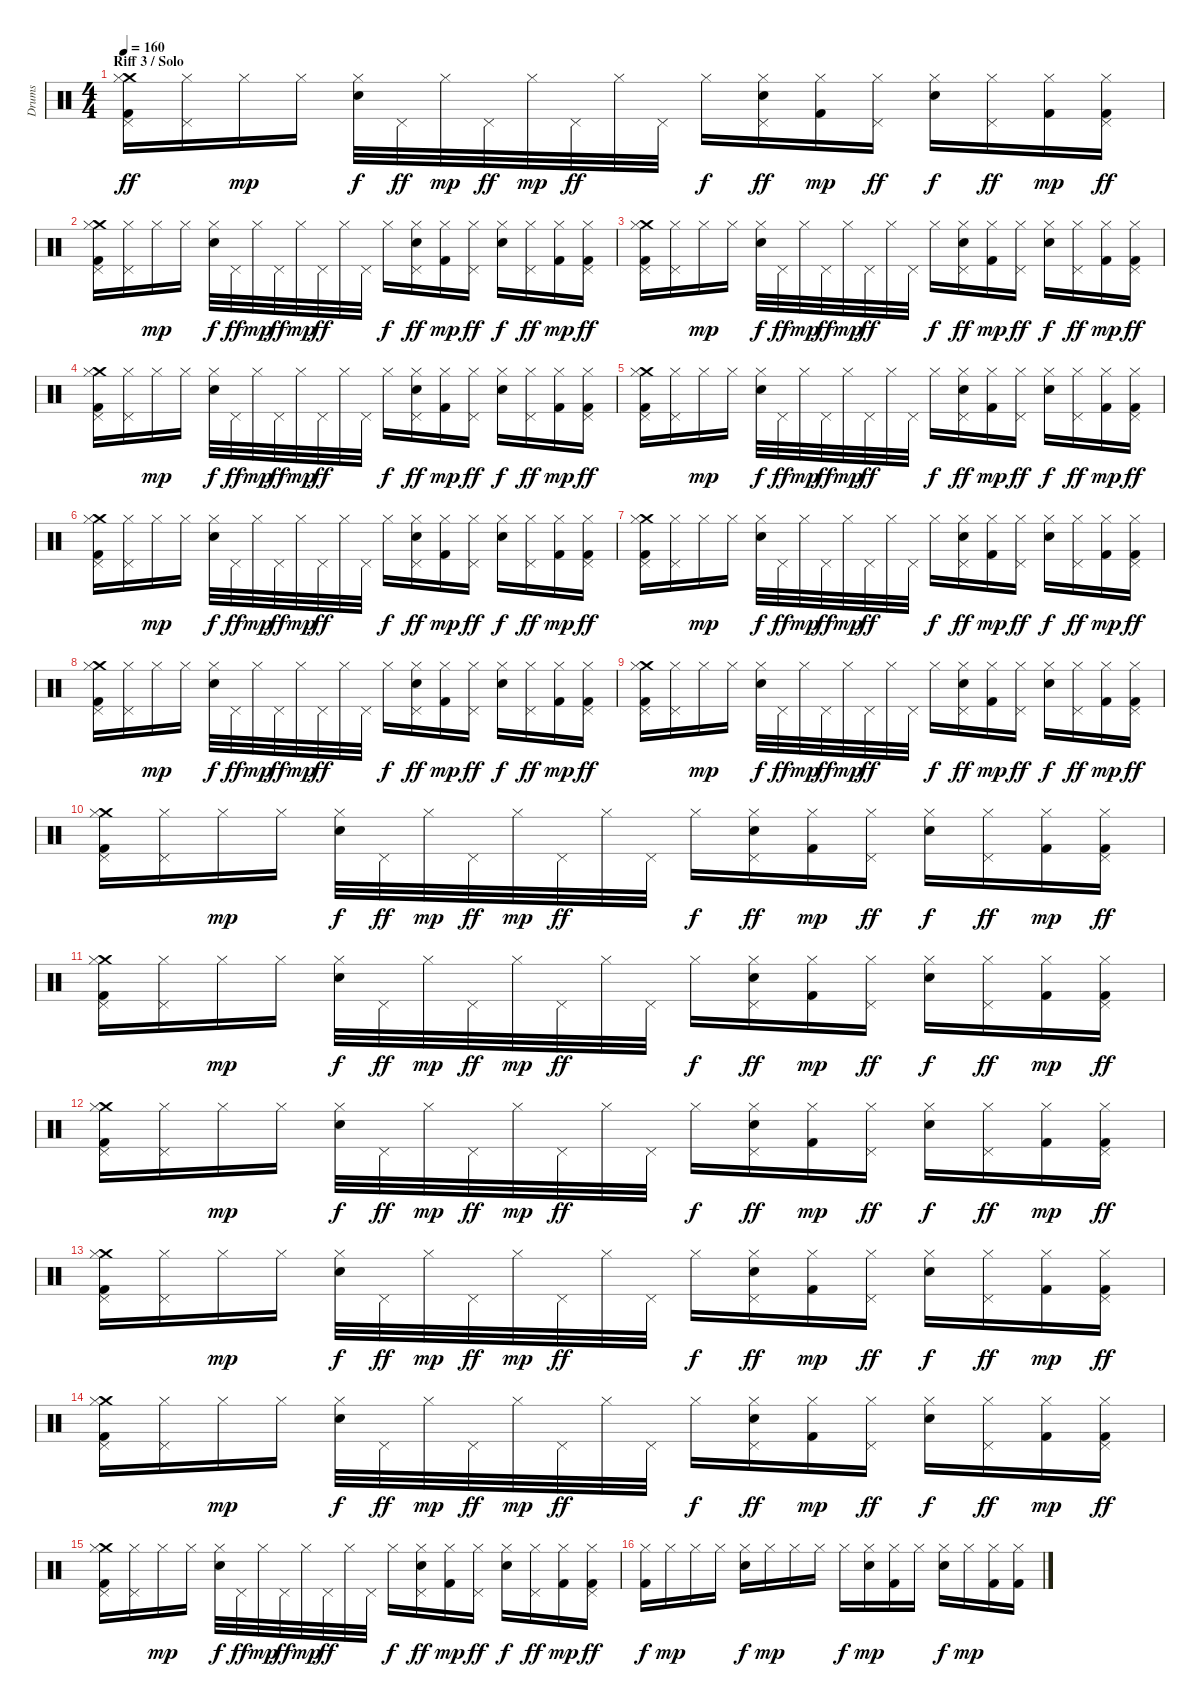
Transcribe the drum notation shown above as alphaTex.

\track ("Drums" "Drums") {instrument percussion}
\staff {score}
\articulation defaults
\ts (4 4)
\section ("" "Riff 3 / Solo")
\tempo 160
\clef neutral
\ks c
("Kick (hit) 2" "Crash medium (hit)" "Hi-Hat (closed)" "Pedal Hi-Hat (hit)").16{dy ff} ("Hi-Hat (closed)" "Pedal Hi-Hat (hit)").16 "Hi-Hat (closed)".16{dy mp} "Hi-Hat (closed)".16 ("Snare (hit) 2" "Hi-Hat (closed)").32{dy f} "Pedal Hi-Hat (hit)".32{dy ff} "Hi-Hat (closed)".32{dy mp} "Pedal Hi-Hat (hit)".32{dy ff} "Hi-Hat (closed)".32{dy mp} "Pedal Hi-Hat (hit)".32{dy ff} "Hi-Hat (closed)".32 "Pedal Hi-Hat (hit)".32 "Hi-Hat (closed)".16{dy f} ("Snare (hit) 2" "Hi-Hat (closed)" "Pedal Hi-Hat (hit)").16{dy ff} ("Kick (hit) 2" "Hi-Hat (closed)").16{dy mp} ("Hi-Hat (closed)" "Pedal Hi-Hat (hit)").16{dy ff} ("Snare (hit) 2" "Hi-Hat (closed)").16{dy f} ("Hi-Hat (closed)" "Pedal Hi-Hat (hit)").16{dy ff} ("Kick (hit) 2" "Hi-Hat (closed)").16{dy mp} ("Kick (hit) 2" "Hi-Hat (closed)" "Pedal Hi-Hat (hit)").16{dy ff} |
("Kick (hit) 2" "Crash medium (hit)" "Hi-Hat (closed)" "Pedal Hi-Hat (hit)").16 ("Hi-Hat (closed)" "Pedal Hi-Hat (hit)").16 "Hi-Hat (closed)".16{dy mp} "Hi-Hat (closed)".16 ("Snare (hit) 2" "Hi-Hat (closed)").32{dy f} "Pedal Hi-Hat (hit)".32{dy ff} "Hi-Hat (closed)".32{dy mp} "Pedal Hi-Hat (hit)".32{dy ff} "Hi-Hat (closed)".32{dy mp} "Pedal Hi-Hat (hit)".32{dy ff} "Hi-Hat (closed)".32 "Pedal Hi-Hat (hit)".32 "Hi-Hat (closed)".16{dy f} ("Snare (hit) 2" "Hi-Hat (closed)" "Pedal Hi-Hat (hit)").16{dy ff} ("Kick (hit) 2" "Hi-Hat (closed)").16{dy mp} ("Hi-Hat (closed)" "Pedal Hi-Hat (hit)").16{dy ff} ("Snare (hit) 2" "Hi-Hat (closed)").16{dy f} ("Hi-Hat (closed)" "Pedal Hi-Hat (hit)").16{dy ff} ("Kick (hit) 2" "Hi-Hat (closed)").16{dy mp} ("Kick (hit) 2" "Hi-Hat (closed)" "Pedal Hi-Hat (hit)").16{dy ff} |
("Kick (hit) 2" "Crash medium (hit)" "Hi-Hat (closed)" "Pedal Hi-Hat (hit)").16 ("Hi-Hat (closed)" "Pedal Hi-Hat (hit)").16 "Hi-Hat (closed)".16{dy mp} "Hi-Hat (closed)".16 ("Snare (hit) 2" "Hi-Hat (closed)").32{dy f} "Pedal Hi-Hat (hit)".32{dy ff} "Hi-Hat (closed)".32{dy mp} "Pedal Hi-Hat (hit)".32{dy ff} "Hi-Hat (closed)".32{dy mp} "Pedal Hi-Hat (hit)".32{dy ff} "Hi-Hat (closed)".32 "Pedal Hi-Hat (hit)".32 "Hi-Hat (closed)".16{dy f} ("Snare (hit) 2" "Hi-Hat (closed)" "Pedal Hi-Hat (hit)").16{dy ff} ("Kick (hit) 2" "Hi-Hat (closed)").16{dy mp} ("Hi-Hat (closed)" "Pedal Hi-Hat (hit)").16{dy ff} ("Snare (hit) 2" "Hi-Hat (closed)").16{dy f} ("Hi-Hat (closed)" "Pedal Hi-Hat (hit)").16{dy ff} ("Kick (hit) 2" "Hi-Hat (closed)").16{dy mp} ("Kick (hit) 2" "Hi-Hat (closed)" "Pedal Hi-Hat (hit)").16{dy ff} |
("Kick (hit) 2" "Crash medium (hit)" "Hi-Hat (closed)" "Pedal Hi-Hat (hit)").16 ("Hi-Hat (closed)" "Pedal Hi-Hat (hit)").16 "Hi-Hat (closed)".16{dy mp} "Hi-Hat (closed)".16 ("Snare (hit) 2" "Hi-Hat (closed)").32{dy f} "Pedal Hi-Hat (hit)".32{dy ff} "Hi-Hat (closed)".32{dy mp} "Pedal Hi-Hat (hit)".32{dy ff} "Hi-Hat (closed)".32{dy mp} "Pedal Hi-Hat (hit)".32{dy ff} "Hi-Hat (closed)".32 "Pedal Hi-Hat (hit)".32 "Hi-Hat (closed)".16{dy f} ("Snare (hit) 2" "Hi-Hat (closed)" "Pedal Hi-Hat (hit)").16{dy ff} ("Kick (hit) 2" "Hi-Hat (closed)").16{dy mp} ("Hi-Hat (closed)" "Pedal Hi-Hat (hit)").16{dy ff} ("Snare (hit) 2" "Hi-Hat (closed)").16{dy f} ("Hi-Hat (closed)" "Pedal Hi-Hat (hit)").16{dy ff} ("Kick (hit) 2" "Hi-Hat (closed)").16{dy mp} ("Kick (hit) 2" "Hi-Hat (closed)" "Pedal Hi-Hat (hit)").16{dy ff} |
("Kick (hit) 2" "Crash medium (hit)" "Hi-Hat (closed)" "Pedal Hi-Hat (hit)").16 ("Hi-Hat (closed)" "Pedal Hi-Hat (hit)").16 "Hi-Hat (closed)".16{dy mp} "Hi-Hat (closed)".16 ("Snare (hit) 2" "Hi-Hat (closed)").32{dy f} "Pedal Hi-Hat (hit)".32{dy ff} "Hi-Hat (closed)".32{dy mp} "Pedal Hi-Hat (hit)".32{dy ff} "Hi-Hat (closed)".32{dy mp} "Pedal Hi-Hat (hit)".32{dy ff} "Hi-Hat (closed)".32 "Pedal Hi-Hat (hit)".32 "Hi-Hat (closed)".16{dy f} ("Snare (hit) 2" "Hi-Hat (closed)" "Pedal Hi-Hat (hit)").16{dy ff} ("Kick (hit) 2" "Hi-Hat (closed)").16{dy mp} ("Hi-Hat (closed)" "Pedal Hi-Hat (hit)").16{dy ff} ("Snare (hit) 2" "Hi-Hat (closed)").16{dy f} ("Hi-Hat (closed)" "Pedal Hi-Hat (hit)").16{dy ff} ("Kick (hit) 2" "Hi-Hat (closed)").16{dy mp} ("Kick (hit) 2" "Hi-Hat (closed)" "Pedal Hi-Hat (hit)").16{dy ff} |
("Kick (hit) 2" "Crash medium (hit)" "Hi-Hat (closed)" "Pedal Hi-Hat (hit)").16 ("Hi-Hat (closed)" "Pedal Hi-Hat (hit)").16 "Hi-Hat (closed)".16{dy mp} "Hi-Hat (closed)".16 ("Snare (hit) 2" "Hi-Hat (closed)").32{dy f} "Pedal Hi-Hat (hit)".32{dy ff} "Hi-Hat (closed)".32{dy mp} "Pedal Hi-Hat (hit)".32{dy ff} "Hi-Hat (closed)".32{dy mp} "Pedal Hi-Hat (hit)".32{dy ff} "Hi-Hat (closed)".32 "Pedal Hi-Hat (hit)".32 "Hi-Hat (closed)".16{dy f} ("Snare (hit) 2" "Hi-Hat (closed)" "Pedal Hi-Hat (hit)").16{dy ff} ("Kick (hit) 2" "Hi-Hat (closed)").16{dy mp} ("Hi-Hat (closed)" "Pedal Hi-Hat (hit)").16{dy ff} ("Snare (hit) 2" "Hi-Hat (closed)").16{dy f} ("Hi-Hat (closed)" "Pedal Hi-Hat (hit)").16{dy ff} ("Kick (hit) 2" "Hi-Hat (closed)").16{dy mp} ("Kick (hit) 2" "Hi-Hat (closed)" "Pedal Hi-Hat (hit)").16{dy ff} |
("Kick (hit) 2" "Crash medium (hit)" "Hi-Hat (closed)" "Pedal Hi-Hat (hit)").16 ("Hi-Hat (closed)" "Pedal Hi-Hat (hit)").16 "Hi-Hat (closed)".16{dy mp} "Hi-Hat (closed)".16 ("Snare (hit) 2" "Hi-Hat (closed)").32{dy f} "Pedal Hi-Hat (hit)".32{dy ff} "Hi-Hat (closed)".32{dy mp} "Pedal Hi-Hat (hit)".32{dy ff} "Hi-Hat (closed)".32{dy mp} "Pedal Hi-Hat (hit)".32{dy ff} "Hi-Hat (closed)".32 "Pedal Hi-Hat (hit)".32 "Hi-Hat (closed)".16{dy f} ("Snare (hit) 2" "Hi-Hat (closed)" "Pedal Hi-Hat (hit)").16{dy ff} ("Kick (hit) 2" "Hi-Hat (closed)").16{dy mp} ("Hi-Hat (closed)" "Pedal Hi-Hat (hit)").16{dy ff} ("Snare (hit) 2" "Hi-Hat (closed)").16{dy f} ("Hi-Hat (closed)" "Pedal Hi-Hat (hit)").16{dy ff} ("Kick (hit) 2" "Hi-Hat (closed)").16{dy mp} ("Kick (hit) 2" "Hi-Hat (closed)" "Pedal Hi-Hat (hit)").16{dy ff} |
("Kick (hit) 2" "Crash medium (hit)" "Hi-Hat (closed)" "Pedal Hi-Hat (hit)").16 ("Hi-Hat (closed)" "Pedal Hi-Hat (hit)").16 "Hi-Hat (closed)".16{dy mp} "Hi-Hat (closed)".16 ("Snare (hit) 2" "Hi-Hat (closed)").32{dy f} "Pedal Hi-Hat (hit)".32{dy ff} "Hi-Hat (closed)".32{dy mp} "Pedal Hi-Hat (hit)".32{dy ff} "Hi-Hat (closed)".32{dy mp} "Pedal Hi-Hat (hit)".32{dy ff} "Hi-Hat (closed)".32 "Pedal Hi-Hat (hit)".32 "Hi-Hat (closed)".16{dy f} ("Snare (hit) 2" "Hi-Hat (closed)" "Pedal Hi-Hat (hit)").16{dy ff} ("Kick (hit) 2" "Hi-Hat (closed)").16{dy mp} ("Hi-Hat (closed)" "Pedal Hi-Hat (hit)").16{dy ff} ("Snare (hit) 2" "Hi-Hat (closed)").16{dy f} ("Hi-Hat (closed)" "Pedal Hi-Hat (hit)").16{dy ff} ("Kick (hit) 2" "Hi-Hat (closed)").16{dy mp} ("Kick (hit) 2" "Hi-Hat (closed)" "Pedal Hi-Hat (hit)").16{dy ff} |
("Kick (hit) 2" "Crash medium (hit)" "Hi-Hat (closed)" "Pedal Hi-Hat (hit)").16 ("Hi-Hat (closed)" "Pedal Hi-Hat (hit)").16 "Hi-Hat (closed)".16{dy mp} "Hi-Hat (closed)".16 ("Snare (hit) 2" "Hi-Hat (closed)").32{dy f} "Pedal Hi-Hat (hit)".32{dy ff} "Hi-Hat (closed)".32{dy mp} "Pedal Hi-Hat (hit)".32{dy ff} "Hi-Hat (closed)".32{dy mp} "Pedal Hi-Hat (hit)".32{dy ff} "Hi-Hat (closed)".32 "Pedal Hi-Hat (hit)".32 "Hi-Hat (closed)".16{dy f} ("Snare (hit) 2" "Hi-Hat (closed)" "Pedal Hi-Hat (hit)").16{dy ff} ("Kick (hit) 2" "Hi-Hat (closed)").16{dy mp} ("Hi-Hat (closed)" "Pedal Hi-Hat (hit)").16{dy ff} ("Snare (hit) 2" "Hi-Hat (closed)").16{dy f} ("Hi-Hat (closed)" "Pedal Hi-Hat (hit)").16{dy ff} ("Kick (hit) 2" "Hi-Hat (closed)").16{dy mp} ("Kick (hit) 2" "Hi-Hat (closed)" "Pedal Hi-Hat (hit)").16{dy ff} |
("Kick (hit) 2" "Crash medium (hit)" "Hi-Hat (closed)" "Pedal Hi-Hat (hit)").16 ("Hi-Hat (closed)" "Pedal Hi-Hat (hit)").16 "Hi-Hat (closed)".16{dy mp} "Hi-Hat (closed)".16 ("Snare (hit) 2" "Hi-Hat (closed)").32{dy f} "Pedal Hi-Hat (hit)".32{dy ff} "Hi-Hat (closed)".32{dy mp} "Pedal Hi-Hat (hit)".32{dy ff} "Hi-Hat (closed)".32{dy mp} "Pedal Hi-Hat (hit)".32{dy ff} "Hi-Hat (closed)".32 "Pedal Hi-Hat (hit)".32 "Hi-Hat (closed)".16{dy f} ("Snare (hit) 2" "Hi-Hat (closed)" "Pedal Hi-Hat (hit)").16{dy ff} ("Kick (hit) 2" "Hi-Hat (closed)").16{dy mp} ("Hi-Hat (closed)" "Pedal Hi-Hat (hit)").16{dy ff} ("Snare (hit) 2" "Hi-Hat (closed)").16{dy f} ("Hi-Hat (closed)" "Pedal Hi-Hat (hit)").16{dy ff} ("Kick (hit) 2" "Hi-Hat (closed)").16{dy mp} ("Kick (hit) 2" "Hi-Hat (closed)" "Pedal Hi-Hat (hit)").16{dy ff} |
("Kick (hit) 2" "Crash medium (hit)" "Hi-Hat (closed)" "Pedal Hi-Hat (hit)").16 ("Hi-Hat (closed)" "Pedal Hi-Hat (hit)").16 "Hi-Hat (closed)".16{dy mp} "Hi-Hat (closed)".16 ("Snare (hit) 2" "Hi-Hat (closed)").32{dy f} "Pedal Hi-Hat (hit)".32{dy ff} "Hi-Hat (closed)".32{dy mp} "Pedal Hi-Hat (hit)".32{dy ff} "Hi-Hat (closed)".32{dy mp} "Pedal Hi-Hat (hit)".32{dy ff} "Hi-Hat (closed)".32 "Pedal Hi-Hat (hit)".32 "Hi-Hat (closed)".16{dy f} ("Snare (hit) 2" "Hi-Hat (closed)" "Pedal Hi-Hat (hit)").16{dy ff} ("Kick (hit) 2" "Hi-Hat (closed)").16{dy mp} ("Hi-Hat (closed)" "Pedal Hi-Hat (hit)").16{dy ff} ("Snare (hit) 2" "Hi-Hat (closed)").16{dy f} ("Hi-Hat (closed)" "Pedal Hi-Hat (hit)").16{dy ff} ("Kick (hit) 2" "Hi-Hat (closed)").16{dy mp} ("Kick (hit) 2" "Hi-Hat (closed)" "Pedal Hi-Hat (hit)").16{dy ff} |
("Kick (hit) 2" "Crash medium (hit)" "Hi-Hat (closed)" "Pedal Hi-Hat (hit)").16 ("Hi-Hat (closed)" "Pedal Hi-Hat (hit)").16 "Hi-Hat (closed)".16{dy mp} "Hi-Hat (closed)".16 ("Snare (hit) 2" "Hi-Hat (closed)").32{dy f} "Pedal Hi-Hat (hit)".32{dy ff} "Hi-Hat (closed)".32{dy mp} "Pedal Hi-Hat (hit)".32{dy ff} "Hi-Hat (closed)".32{dy mp} "Pedal Hi-Hat (hit)".32{dy ff} "Hi-Hat (closed)".32 "Pedal Hi-Hat (hit)".32 "Hi-Hat (closed)".16{dy f} ("Snare (hit) 2" "Hi-Hat (closed)" "Pedal Hi-Hat (hit)").16{dy ff} ("Kick (hit) 2" "Hi-Hat (closed)").16{dy mp} ("Hi-Hat (closed)" "Pedal Hi-Hat (hit)").16{dy ff} ("Snare (hit) 2" "Hi-Hat (closed)").16{dy f} ("Hi-Hat (closed)" "Pedal Hi-Hat (hit)").16{dy ff} ("Kick (hit) 2" "Hi-Hat (closed)").16{dy mp} ("Kick (hit) 2" "Hi-Hat (closed)" "Pedal Hi-Hat (hit)").16{dy ff} |
("Kick (hit) 2" "Crash medium (hit)" "Hi-Hat (closed)" "Pedal Hi-Hat (hit)").16 ("Hi-Hat (closed)" "Pedal Hi-Hat (hit)").16 "Hi-Hat (closed)".16{dy mp} "Hi-Hat (closed)".16 ("Snare (hit) 2" "Hi-Hat (closed)").32{dy f} "Pedal Hi-Hat (hit)".32{dy ff} "Hi-Hat (closed)".32{dy mp} "Pedal Hi-Hat (hit)".32{dy ff} "Hi-Hat (closed)".32{dy mp} "Pedal Hi-Hat (hit)".32{dy ff} "Hi-Hat (closed)".32 "Pedal Hi-Hat (hit)".32 "Hi-Hat (closed)".16{dy f} ("Snare (hit) 2" "Hi-Hat (closed)" "Pedal Hi-Hat (hit)").16{dy ff} ("Kick (hit) 2" "Hi-Hat (closed)").16{dy mp} ("Hi-Hat (closed)" "Pedal Hi-Hat (hit)").16{dy ff} ("Snare (hit) 2" "Hi-Hat (closed)").16{dy f} ("Hi-Hat (closed)" "Pedal Hi-Hat (hit)").16{dy ff} ("Kick (hit) 2" "Hi-Hat (closed)").16{dy mp} ("Kick (hit) 2" "Hi-Hat (closed)" "Pedal Hi-Hat (hit)").16{dy ff} |
("Kick (hit) 2" "Crash medium (hit)" "Hi-Hat (closed)" "Pedal Hi-Hat (hit)").16 ("Hi-Hat (closed)" "Pedal Hi-Hat (hit)").16 "Hi-Hat (closed)".16{dy mp} "Hi-Hat (closed)".16 ("Snare (hit) 2" "Hi-Hat (closed)").32{dy f} "Pedal Hi-Hat (hit)".32{dy ff} "Hi-Hat (closed)".32{dy mp} "Pedal Hi-Hat (hit)".32{dy ff} "Hi-Hat (closed)".32{dy mp} "Pedal Hi-Hat (hit)".32{dy ff} "Hi-Hat (closed)".32 "Pedal Hi-Hat (hit)".32 "Hi-Hat (closed)".16{dy f} ("Snare (hit) 2" "Hi-Hat (closed)" "Pedal Hi-Hat (hit)").16{dy ff} ("Kick (hit) 2" "Hi-Hat (closed)").16{dy mp} ("Hi-Hat (closed)" "Pedal Hi-Hat (hit)").16{dy ff} ("Snare (hit) 2" "Hi-Hat (closed)").16{dy f} ("Hi-Hat (closed)" "Pedal Hi-Hat (hit)").16{dy ff} ("Kick (hit) 2" "Hi-Hat (closed)").16{dy mp} ("Kick (hit) 2" "Hi-Hat (closed)" "Pedal Hi-Hat (hit)").16{dy ff} |
("Kick (hit) 2" "Crash medium (hit)" "Hi-Hat (closed)" "Pedal Hi-Hat (hit)").16 ("Hi-Hat (closed)" "Pedal Hi-Hat (hit)").16 "Hi-Hat (closed)".16{dy mp} "Hi-Hat (closed)".16 ("Snare (hit) 2" "Hi-Hat (closed)").32{dy f} "Pedal Hi-Hat (hit)".32{dy ff} "Hi-Hat (closed)".32{dy mp} "Pedal Hi-Hat (hit)".32{dy ff} "Hi-Hat (closed)".32{dy mp} "Pedal Hi-Hat (hit)".32{dy ff} "Hi-Hat (closed)".32 "Pedal Hi-Hat (hit)".32 "Hi-Hat (closed)".16{dy f} ("Snare (hit) 2" "Hi-Hat (closed)" "Pedal Hi-Hat (hit)").16{dy ff} ("Kick (hit) 2" "Hi-Hat (closed)").16{dy mp} ("Hi-Hat (closed)" "Pedal Hi-Hat (hit)").16{dy ff} ("Snare (hit) 2" "Hi-Hat (closed)").16{dy f} ("Hi-Hat (closed)" "Pedal Hi-Hat (hit)").16{dy ff} ("Kick (hit) 2" "Hi-Hat (closed)").16{dy mp} ("Kick (hit) 2" "Hi-Hat (closed)" "Pedal Hi-Hat (hit)").16{dy ff} |
("Kick (hit) 2" "Hi-Hat (closed)").16{dy f} "Hi-Hat (closed)".16{dy mp} "Hi-Hat (closed)".16 "Hi-Hat (closed)".16 ("Snare (hit) 2" "Hi-Hat (closed)").16{dy f} "Hi-Hat (closed)".16{dy mp} "Hi-Hat (closed)".16 "Hi-Hat (closed)".16 "Hi-Hat (closed)".16{dy f} ("Snare (hit) 2" "Hi-Hat (closed)").16{dy mp} ("Kick (hit) 2" "Hi-Hat (closed)").16 "Hi-Hat (closed)".16 ("Snare (hit) 2" "Hi-Hat (closed)").16{dy f} "Hi-Hat (closed)".16{dy mp} ("Kick (hit) 2" "Hi-Hat (closed)").16 ("Kick (hit) 2" "Hi-Hat (closed)").16
